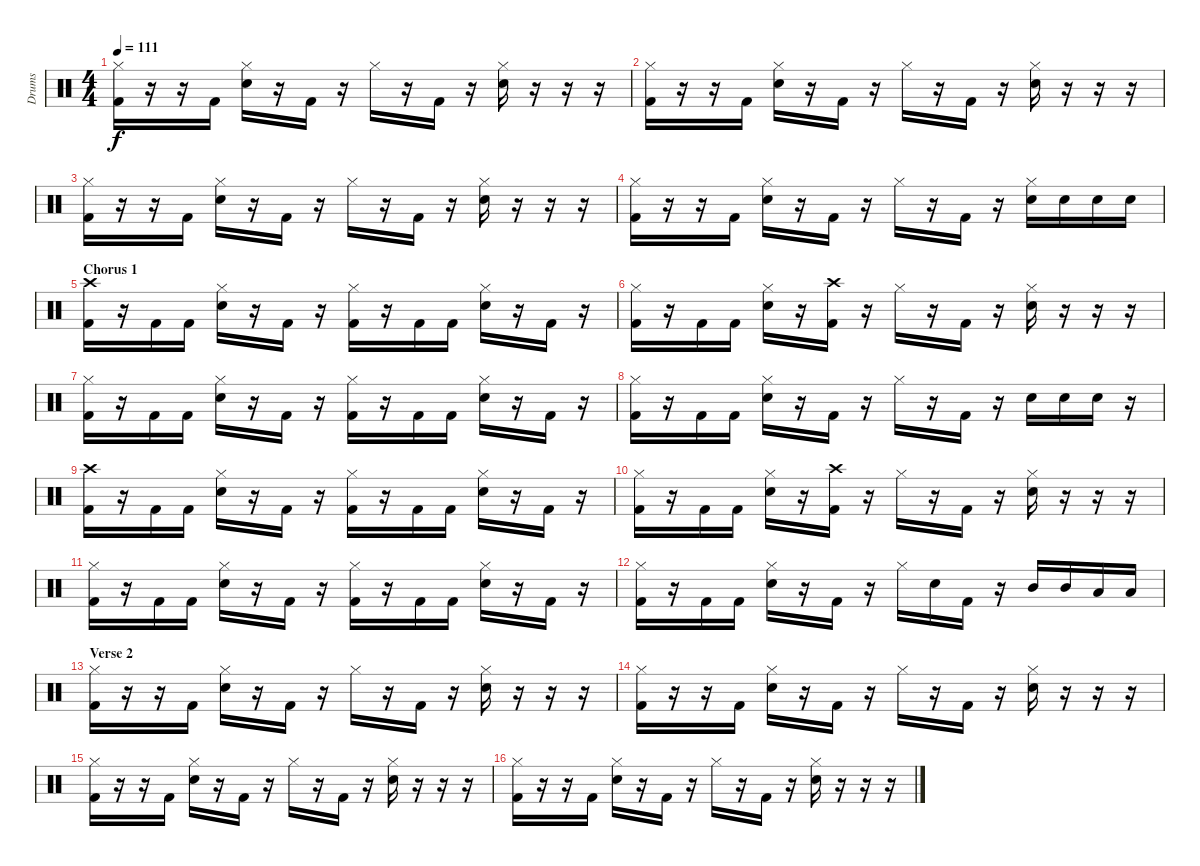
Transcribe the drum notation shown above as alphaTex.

\track ("Drums" "Drums") {instrument percussion}
\staff {score}
\articulation defaults
\ts (4 4)
\tempo 111
\clef neutral
\ks c
("Hi-Hat (closed)" "Kick (hit) 2").16{dy f} r.16 r.16 "Kick (hit) 2".16 ("Hi-Hat (closed)" "Snare (hit) 2").16 r.16 "Kick (hit) 2".16 r.16 "Hi-Hat (closed)".16 r.16 "Kick (hit) 2".16 r.16 ("Hi-Hat (closed)" "Snare (hit) 2").16 r.16 r.16 r.16 |
("Hi-Hat (closed)" "Kick (hit) 2").16 r.16 r.16 "Kick (hit) 2".16 ("Hi-Hat (closed)" "Snare (hit) 2").16 r.16 "Kick (hit) 2".16 r.16 "Hi-Hat (closed)".16 r.16 "Kick (hit) 2".16 r.16 ("Hi-Hat (closed)" "Snare (hit) 2").16 r.16 r.16 r.16 |
("Hi-Hat (closed)" "Kick (hit) 2").16 r.16 r.16 "Kick (hit) 2".16 ("Hi-Hat (closed)" "Snare (hit) 2").16 r.16 "Kick (hit) 2".16 r.16 "Hi-Hat (closed)".16 r.16 "Kick (hit) 2".16 r.16 ("Hi-Hat (closed)" "Snare (hit) 2").16 r.16 r.16 r.16 |
("Hi-Hat (closed)" "Kick (hit) 2").16 r.16 r.16 "Kick (hit) 2".16 ("Hi-Hat (closed)" "Snare (hit) 2").16 r.16 "Kick (hit) 2".16 r.16 "Hi-Hat (closed)".16 r.16 "Kick (hit) 2".16 r.16 ("Hi-Hat (closed)" "Snare (hit) 2").16 "Snare (hit) 2".16 "Snare (hit) 2".16 "Snare (hit) 2".16 |
\section ("" "Chorus 1")
("Crash high (hit)" "Kick (hit) 2").16 r.16 "Kick (hit) 2".16 "Kick (hit) 2".16 ("Hi-Hat (closed)" "Snare (hit) 2").16 r.16 "Kick (hit) 2".16 r.16 ("Hi-Hat (closed)" "Kick (hit) 2").16 r.16 "Kick (hit) 2".16 "Kick (hit) 2".16 ("Hi-Hat (closed)" "Snare (hit) 2").16 r.16 "Kick (hit) 2".16 r.16 |
("Hi-Hat (closed)" "Kick (hit) 2").16 r.16 "Kick (hit) 2".16 "Kick (hit) 2".16 ("Hi-Hat (closed)" "Snare (hit) 2").16 r.16 ("Crash high (hit)" "Kick (hit) 2").16 r.16 "Hi-Hat (closed)".16 r.16 "Kick (hit) 2".16 r.16 ("Hi-Hat (closed)" "Snare (hit) 2").16 r.16 r.16 r.16 |
("Hi-Hat (closed)" "Kick (hit) 2").16 r.16 "Kick (hit) 2".16 "Kick (hit) 2".16 ("Hi-Hat (closed)" "Snare (hit) 2").16 r.16 "Kick (hit) 2".16 r.16 ("Hi-Hat (closed)" "Kick (hit) 2").16 r.16 "Kick (hit) 2".16 "Kick (hit) 2".16 ("Hi-Hat (closed)" "Snare (hit) 2").16 r.16 "Kick (hit) 2".16 r.16 |
("Hi-Hat (closed)" "Kick (hit) 2").16 r.16 "Kick (hit) 2".16 "Kick (hit) 2".16 ("Hi-Hat (closed)" "Snare (hit) 2").16 r.16 "Kick (hit) 2".16 r.16 "Hi-Hat (closed)".16 r.16 "Kick (hit) 2".16 r.16 "Snare (hit) 2".16 "Snare (hit) 2".16 "Snare (hit) 2".16 r.16 |
("Crash high (hit)" "Kick (hit) 2").16 r.16 "Kick (hit) 2".16 "Kick (hit) 2".16 ("Hi-Hat (closed)" "Snare (hit) 2").16 r.16 "Kick (hit) 2".16 r.16 ("Hi-Hat (closed)" "Kick (hit) 2").16 r.16 "Kick (hit) 2".16 "Kick (hit) 2".16 ("Hi-Hat (closed)" "Snare (hit) 2").16 r.16 "Kick (hit) 2".16 r.16 |
("Hi-Hat (closed)" "Kick (hit) 2").16 r.16 "Kick (hit) 2".16 "Kick (hit) 2".16 ("Hi-Hat (closed)" "Snare (hit) 2").16 r.16 ("Crash high (hit)" "Kick (hit) 2").16 r.16 "Hi-Hat (closed)".16 r.16 "Kick (hit) 2".16 r.16 ("Hi-Hat (closed)" "Snare (hit) 2").16 r.16 r.16 r.16 |
("Hi-Hat (closed)" "Kick (hit) 2").16 r.16 "Kick (hit) 2".16 "Kick (hit) 2".16 ("Hi-Hat (closed)" "Snare (hit) 2").16 r.16 "Kick (hit) 2".16 r.16 ("Hi-Hat (closed)" "Kick (hit) 2").16 r.16 "Kick (hit) 2".16 "Kick (hit) 2".16 ("Hi-Hat (closed)" "Snare (hit) 2").16 r.16 "Kick (hit) 2".16 r.16 |
("Hi-Hat (closed)" "Kick (hit) 2").16 r.16 "Kick (hit) 2".16 "Kick (hit) 2".16 ("Hi-Hat (closed)" "Snare (hit) 2").16 r.16 "Kick (hit) 2".16 r.16 "Hi-Hat (closed)".16 "Snare (hit) 2".16 "Kick (hit) 2".16 r.16 "Mid Tom (hit)".16 "Mid Tom (hit)".16 "Low Tom (hit)".16 "Low Tom (hit)".16 |
\section ("" "Verse 2")
("Hi-Hat (closed)" "Kick (hit) 2").16 r.16 r.16 "Kick (hit) 2".16 ("Hi-Hat (closed)" "Snare (hit) 2").16 r.16 "Kick (hit) 2".16 r.16 "Hi-Hat (closed)".16 r.16 "Kick (hit) 2".16 r.16 ("Hi-Hat (closed)" "Snare (hit) 2").16 r.16 r.16 r.16 |
("Hi-Hat (closed)" "Kick (hit) 2").16 r.16 r.16 "Kick (hit) 2".16 ("Hi-Hat (closed)" "Snare (hit) 2").16 r.16 "Kick (hit) 2".16 r.16 "Hi-Hat (closed)".16 r.16 "Kick (hit) 2".16 r.16 ("Hi-Hat (closed)" "Snare (hit) 2").16 r.16 r.16 r.16 |
("Hi-Hat (closed)" "Kick (hit) 2").16 r.16 r.16 "Kick (hit) 2".16 ("Hi-Hat (closed)" "Snare (hit) 2").16 r.16 "Kick (hit) 2".16 r.16 "Hi-Hat (closed)".16 r.16 "Kick (hit) 2".16 r.16 ("Hi-Hat (closed)" "Snare (hit) 2").16 r.16 r.16 r.16 |
("Hi-Hat (closed)" "Kick (hit) 2").16 r.16 r.16 "Kick (hit) 2".16 ("Hi-Hat (closed)" "Snare (hit) 2").16 r.16 "Kick (hit) 2".16 r.16 "Hi-Hat (closed)".16 r.16 "Kick (hit) 2".16 r.16 ("Hi-Hat (closed)" "Snare (hit) 2").16 r.16 r.16 r.16
